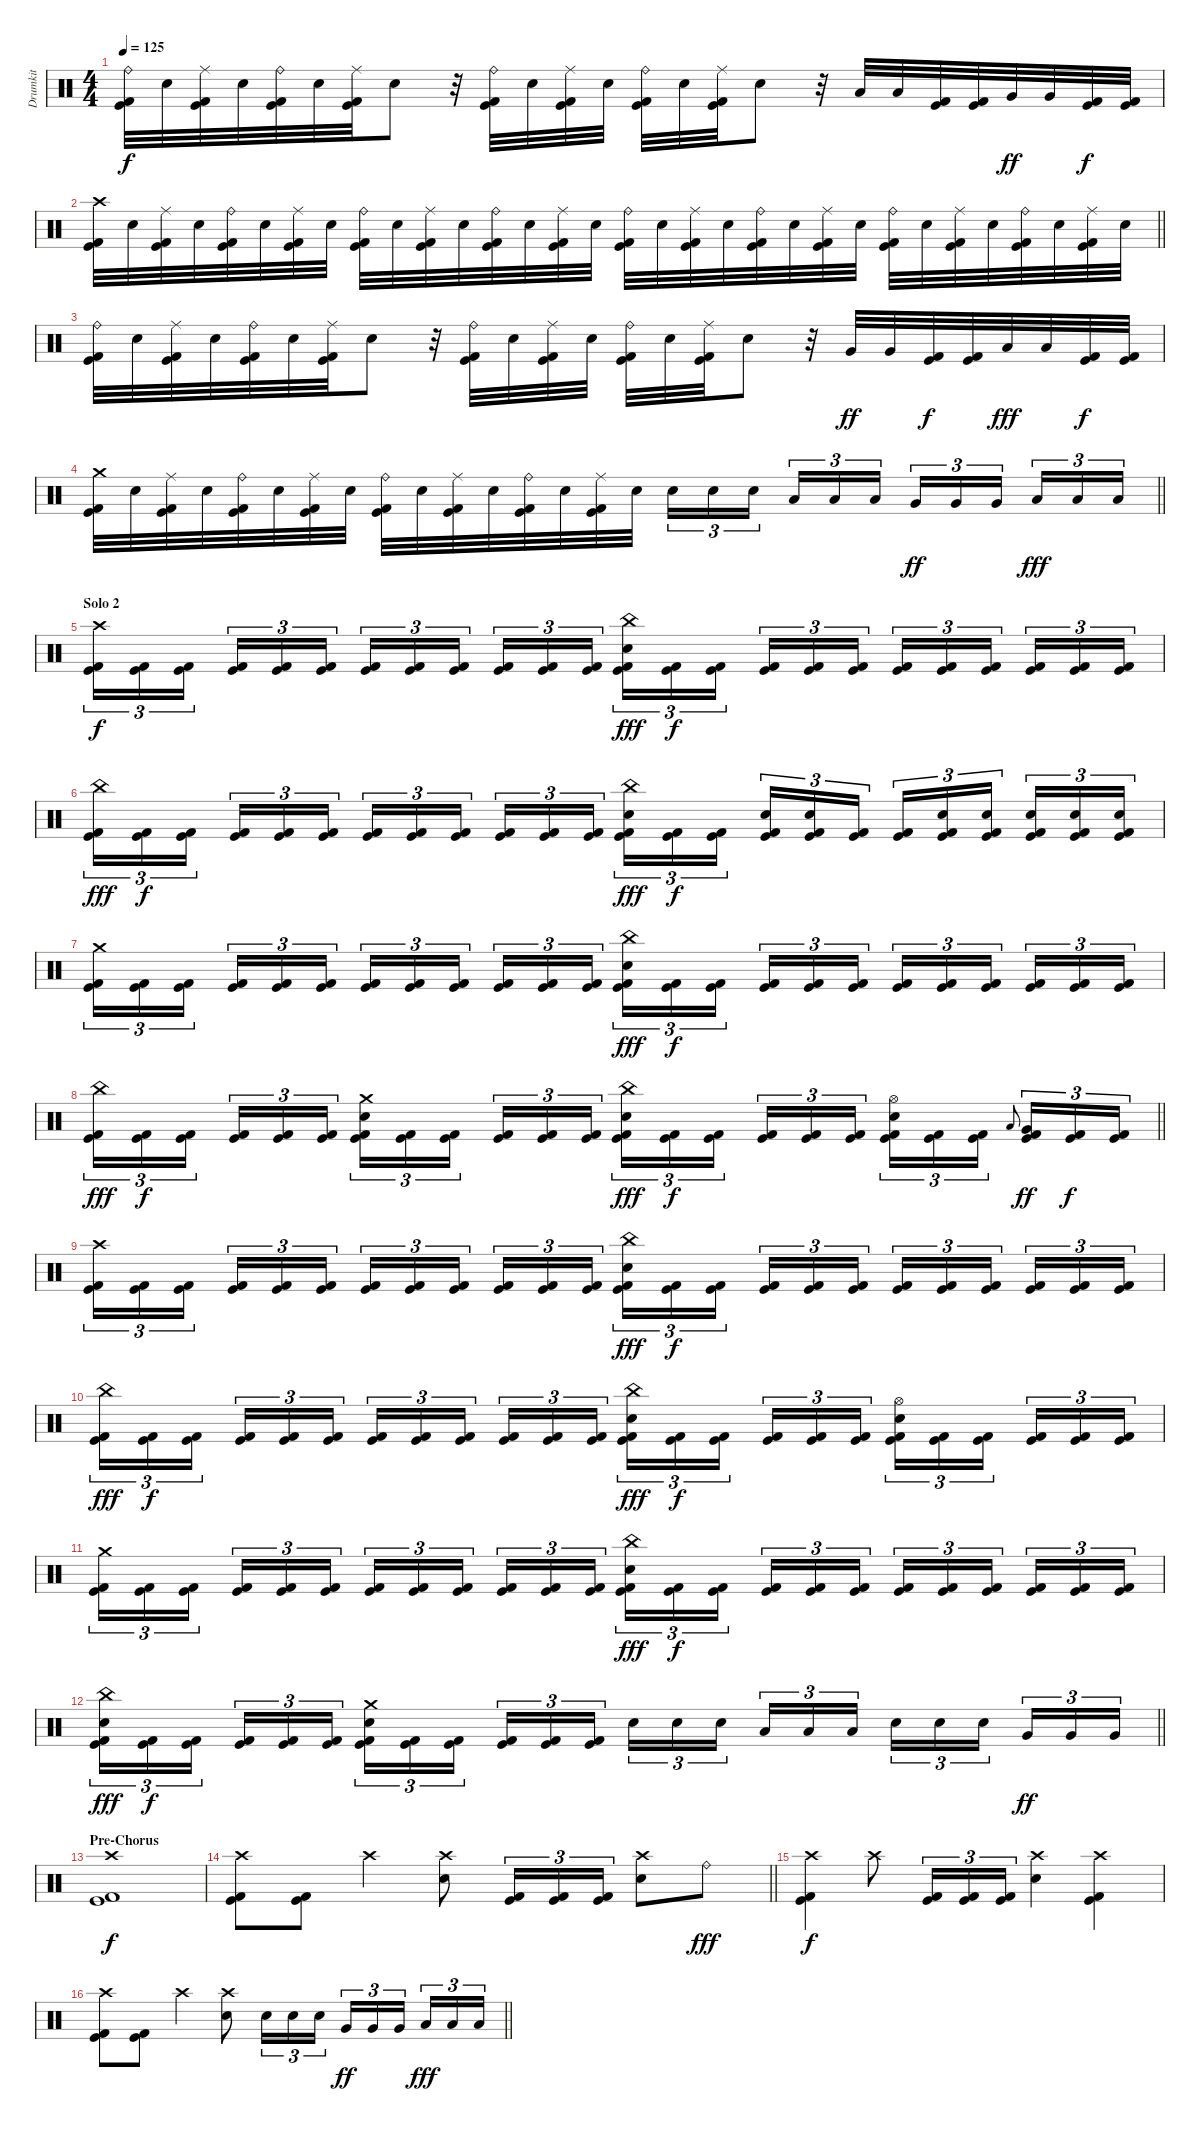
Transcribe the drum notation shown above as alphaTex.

\track ("Drumkit" "Drumkit") {instrument percussion}
\staff {score}
\articulation defaults
\ts (4 4)
\tempo 125
\clef neutral
\ks c
("Ride (bell)" "Kick (hit)" "Kick (hit) 2").32{dy f} "Electric Snare (hit)".32 ("Ride (middle)" "Kick (hit)" "Kick (hit) 2").32 "Electric Snare (hit)".32 ("Ride (bell)" "Kick (hit)" "Kick (hit) 2").32 "Electric Snare (hit)".32 ("Ride (middle)" "Kick (hit)" "Kick (hit) 2").32 "Electric Snare (hit)".8 r.32 ("Ride (bell)" "Kick (hit)" "Kick (hit) 2").32 "Electric Snare (hit)".32 ("Ride (middle)" "Kick (hit)" "Kick (hit) 2").32 "Electric Snare (hit)".32 ("Ride (bell)" "Kick (hit)" "Kick (hit) 2").32 "Electric Snare (hit)".32 ("Ride (middle)" "Kick (hit)" "Kick (hit) 2").32 "Electric Snare (hit)".8 r.32 "Low Tom (hit)".32 "Low Tom (hit)".32 ("Kick (hit)" "Kick (hit) 2").32 ("Kick (hit)" "Kick (hit) 2").32 "Very Low Tom (hit)".32{dy ff} "Very Low Tom (hit)".32 ("Kick (hit)" "Kick (hit) 2").32{dy f} ("Kick (hit)" "Kick (hit) 2").32 |
\barLineRight lightlight
("Crash high (hit)" "Kick (hit)" "Kick (hit) 2").32 "Electric Snare (hit)".32 ("Ride (middle)" "Kick (hit)" "Kick (hit) 2").32 "Electric Snare (hit)".32 ("Ride (bell)" "Kick (hit)" "Kick (hit) 2").32 "Electric Snare (hit)".32 ("Ride (middle)" "Kick (hit)" "Kick (hit) 2").32 "Electric Snare (hit)".32 ("Ride (bell)" "Kick (hit)" "Kick (hit) 2").32 "Electric Snare (hit)".32 ("Ride (middle)" "Kick (hit)" "Kick (hit) 2").32 "Electric Snare (hit)".32 ("Ride (bell)" "Kick (hit)" "Kick (hit) 2").32 "Electric Snare (hit)".32 ("Ride (middle)" "Kick (hit)" "Kick (hit) 2").32 "Electric Snare (hit)".32 ("Ride (bell)" "Kick (hit)" "Kick (hit) 2").32 "Electric Snare (hit)".32 ("Ride (middle)" "Kick (hit)" "Kick (hit) 2").32 "Electric Snare (hit)".32 ("Ride (bell)" "Kick (hit)" "Kick (hit) 2").32 "Electric Snare (hit)".32 ("Ride (middle)" "Kick (hit)" "Kick (hit) 2").32 "Electric Snare (hit)".32 ("Ride (bell)" "Kick (hit)" "Kick (hit) 2").32 "Electric Snare (hit)".32 ("Ride (middle)" "Kick (hit)" "Kick (hit) 2").32 "Electric Snare (hit)".32 ("Ride (bell)" "Kick (hit)" "Kick (hit) 2").32 "Electric Snare (hit)".32 ("Ride (middle)" "Kick (hit)" "Kick (hit) 2").32 "Electric Snare (hit)".32 |
("Ride (bell)" "Kick (hit)" "Kick (hit) 2").32 "Electric Snare (hit)".32 ("Ride (middle)" "Kick (hit)" "Kick (hit) 2").32 "Electric Snare (hit)".32 ("Ride (bell)" "Kick (hit)" "Kick (hit) 2").32 "Electric Snare (hit)".32 ("Ride (middle)" "Kick (hit)" "Kick (hit) 2").32 "Electric Snare (hit)".8 r.32 ("Ride (bell)" "Kick (hit)" "Kick (hit) 2").32 "Electric Snare (hit)".32 ("Ride (middle)" "Kick (hit)" "Kick (hit) 2").32 "Electric Snare (hit)".32 ("Ride (bell)" "Kick (hit)" "Kick (hit) 2").32 "Electric Snare (hit)".32 ("Ride (middle)" "Kick (hit)" "Kick (hit) 2").32 "Electric Snare (hit)".8 r.32 "Very Low Tom (hit)".32{dy ff} "Very Low Tom (hit)".32 ("Kick (hit)" "Kick (hit) 2").32{dy f} ("Kick (hit)" "Kick (hit) 2").32 "Low Floor Tom (hit)".32{dy fff} "Low Floor Tom (hit)".32 ("Kick (hit)" "Kick (hit) 2").32{dy f} ("Kick (hit)" "Kick (hit) 2").32 |
\barLineRight lightlight
("Crash medium (hit)" "Kick (hit)" "Kick (hit) 2").32 "Electric Snare (hit)".32 ("Ride (middle)" "Kick (hit)" "Kick (hit) 2").32 "Electric Snare (hit)".32 ("Ride (bell)" "Kick (hit)" "Kick (hit) 2").32 "Electric Snare (hit)".32 ("Ride (middle)" "Kick (hit)" "Kick (hit) 2").32 "Electric Snare (hit)".32 ("Ride (bell)" "Kick (hit)" "Kick (hit) 2").32 "Electric Snare (hit)".32 ("Ride (middle)" "Kick (hit)" "Kick (hit) 2").32 "Electric Snare (hit)".32 ("Ride (bell)" "Kick (hit)" "Kick (hit) 2").32 "Electric Snare (hit)".32 ("Ride (middle)" "Kick (hit)" "Kick (hit) 2").32 "Electric Snare (hit)".32 "Electric Snare (hit)".16{tu (3 2)} "Electric Snare (hit)".16{tu (3 2)} "Electric Snare (hit)".16{tu (3 2) beam splitsecondary} "Low Tom (hit)".16{tu (3 2)} "Low Tom (hit)".16{tu (3 2)} "Low Tom (hit)".16{tu (3 2)} "Very Low Tom (hit)".16{tu (3 2) dy ff} "Very Low Tom (hit)".16{tu (3 2)} "Very Low Tom (hit)".16{tu (3 2) beam splitsecondary} "Low Floor Tom (hit)".16{tu (3 2) dy fff} "Low Floor Tom (hit)".16{tu (3 2)} "Low Floor Tom (hit)".16{tu (3 2)} |
\section ("" "Solo 2")
("Crash high (hit)" "Kick (hit)" "Kick (hit) 2").16{tu (3 2) dy f} ("Kick (hit)" "Kick (hit) 2").16{tu (3 2)} ("Kick (hit)" "Kick (hit) 2").16{tu (3 2) beam splitsecondary} ("Kick (hit)" "Kick (hit) 2").16{tu (3 2)} ("Kick (hit)" "Kick (hit) 2").16{tu (3 2)} ("Kick (hit)" "Kick (hit) 2").16{tu (3 2)} ("Kick (hit)" "Kick (hit) 2").16{tu (3 2)} ("Kick (hit)" "Kick (hit) 2").16{tu (3 2)} ("Kick (hit)" "Kick (hit) 2").16{tu (3 2) beam splitsecondary} ("Kick (hit)" "Kick (hit) 2").16{tu (3 2)} ("Kick (hit)" "Kick (hit) 2").16{tu (3 2)} ("Kick (hit)" "Kick (hit) 2").16{tu (3 2)} ("China (hit)" "Electric Snare (hit)" "Kick (hit)" "Kick (hit) 2").16{tu (3 2) dy fff} ("Kick (hit)" "Kick (hit) 2").16{tu (3 2) dy f} ("Kick (hit)" "Kick (hit) 2").16{tu (3 2) beam splitsecondary} ("Kick (hit)" "Kick (hit) 2").16{tu (3 2)} ("Kick (hit)" "Kick (hit) 2").16{tu (3 2)} ("Kick (hit)" "Kick (hit) 2").16{tu (3 2)} ("Kick (hit)" "Kick (hit) 2").16{tu (3 2)} ("Kick (hit)" "Kick (hit) 2").16{tu (3 2)} ("Kick (hit)" "Kick (hit) 2").16{tu (3 2) beam splitsecondary} ("Kick (hit)" "Kick (hit) 2").16{tu (3 2)} ("Kick (hit)" "Kick (hit) 2").16{tu (3 2)} ("Kick (hit)" "Kick (hit) 2").16{tu (3 2)} |
("China (hit)" "Kick (hit)" "Kick (hit) 2").16{tu (3 2) dy fff} ("Kick (hit)" "Kick (hit) 2").16{tu (3 2) dy f} ("Kick (hit)" "Kick (hit) 2").16{tu (3 2) beam splitsecondary} ("Kick (hit)" "Kick (hit) 2").16{tu (3 2)} ("Kick (hit)" "Kick (hit) 2").16{tu (3 2)} ("Kick (hit)" "Kick (hit) 2").16{tu (3 2)} ("Kick (hit)" "Kick (hit) 2").16{tu (3 2)} ("Kick (hit)" "Kick (hit) 2").16{tu (3 2)} ("Kick (hit)" "Kick (hit) 2").16{tu (3 2) beam splitsecondary} ("Kick (hit)" "Kick (hit) 2").16{tu (3 2)} ("Kick (hit)" "Kick (hit) 2").16{tu (3 2)} ("Kick (hit)" "Kick (hit) 2").16{tu (3 2)} ("China (hit)" "Electric Snare (hit)" "Kick (hit)" "Kick (hit) 2").16{tu (3 2) dy fff} ("Kick (hit)" "Kick (hit) 2").16{tu (3 2) dy f} ("Kick (hit)" "Kick (hit) 2").16{tu (3 2) beam splitsecondary} ("Electric Snare (hit)" "Kick (hit)" "Kick (hit) 2").16{tu (3 2)} ("Electric Snare (hit)" "Kick (hit)" "Kick (hit) 2").16{tu (3 2)} ("Kick (hit)" "Kick (hit) 2").16{tu (3 2)} ("Kick (hit)" "Kick (hit) 2").16{tu (3 2)} ("Electric Snare (hit)" "Kick (hit)" "Kick (hit) 2").16{tu (3 2)} ("Electric Snare (hit)" "Kick (hit)" "Kick (hit) 2").16{tu (3 2) beam splitsecondary} ("Electric Snare (hit)" "Kick (hit)" "Kick (hit) 2").16{tu (3 2)} ("Electric Snare (hit)" "Kick (hit)" "Kick (hit) 2").16{tu (3 2)} ("Electric Snare (hit)" "Kick (hit)" "Kick (hit) 2").16{tu (3 2)} |
("Crash medium (hit)" "Kick (hit)" "Kick (hit) 2").16{tu (3 2)} ("Kick (hit)" "Kick (hit) 2").16{tu (3 2)} ("Kick (hit)" "Kick (hit) 2").16{tu (3 2) beam splitsecondary} ("Kick (hit)" "Kick (hit) 2").16{tu (3 2)} ("Kick (hit)" "Kick (hit) 2").16{tu (3 2)} ("Kick (hit)" "Kick (hit) 2").16{tu (3 2)} ("Kick (hit)" "Kick (hit) 2").16{tu (3 2)} ("Kick (hit)" "Kick (hit) 2").16{tu (3 2)} ("Kick (hit)" "Kick (hit) 2").16{tu (3 2) beam splitsecondary} ("Kick (hit)" "Kick (hit) 2").16{tu (3 2)} ("Kick (hit)" "Kick (hit) 2").16{tu (3 2)} ("Kick (hit)" "Kick (hit) 2").16{tu (3 2)} ("China (hit)" "Electric Snare (hit)" "Kick (hit)" "Kick (hit) 2").16{tu (3 2) dy fff} ("Kick (hit)" "Kick (hit) 2").16{tu (3 2) dy f} ("Kick (hit)" "Kick (hit) 2").16{tu (3 2) beam splitsecondary} ("Kick (hit)" "Kick (hit) 2").16{tu (3 2)} ("Kick (hit)" "Kick (hit) 2").16{tu (3 2)} ("Kick (hit)" "Kick (hit) 2").16{tu (3 2)} ("Kick (hit)" "Kick (hit) 2").16{tu (3 2)} ("Kick (hit)" "Kick (hit) 2").16{tu (3 2)} ("Kick (hit)" "Kick (hit) 2").16{tu (3 2) beam splitsecondary} ("Kick (hit)" "Kick (hit) 2").16{tu (3 2)} ("Kick (hit)" "Kick (hit) 2").16{tu (3 2)} ("Kick (hit)" "Kick (hit) 2").16{tu (3 2)} |
\barLineRight lightlight
("China (hit)" "Kick (hit)" "Kick (hit) 2").16{tu (3 2) dy fff} ("Kick (hit)" "Kick (hit) 2").16{tu (3 2) dy f} ("Kick (hit)" "Kick (hit) 2").16{tu (3 2) beam splitsecondary} ("Kick (hit)" "Kick (hit) 2").16{tu (3 2)} ("Kick (hit)" "Kick (hit) 2").16{tu (3 2)} ("Kick (hit)" "Kick (hit) 2").16{tu (3 2)} ("Crash medium (hit)" "Electric Snare (hit)" "Kick (hit)" "Kick (hit) 2").16{tu (3 2)} ("Kick (hit)" "Kick (hit) 2").16{tu (3 2)} ("Kick (hit)" "Kick (hit) 2").16{tu (3 2) beam splitsecondary} ("Kick (hit)" "Kick (hit) 2").16{tu (3 2)} ("Kick (hit)" "Kick (hit) 2").16{tu (3 2)} ("Kick (hit)" "Kick (hit) 2").16{tu (3 2)} ("China (hit)" "Electric Snare (hit)" "Kick (hit)" "Kick (hit) 2").16{tu (3 2) dy fff} ("Kick (hit)" "Kick (hit) 2").16{tu (3 2) dy f} ("Kick (hit)" "Kick (hit) 2").16{tu (3 2) beam splitsecondary} ("Kick (hit)" "Kick (hit) 2").16{tu (3 2)} ("Kick (hit)" "Kick (hit) 2").16{tu (3 2)} ("Kick (hit)" "Kick (hit) 2").16{tu (3 2)} ("Hi-Hat (open)" "Electric Snare (hit)" "Kick (hit)" "Kick (hit) 2").16{tu (3 2)} ("Kick (hit)" "Kick (hit) 2").16{tu (3 2)} ("Kick (hit)" "Kick (hit) 2").16{tu (3 2)} "Low Tom (hit)".8{gr onbeat beam splitsecondary} ("Very Low Tom (hit)" "Kick (hit)" "Kick (hit) 2").16{tu (3 2) dy ff} ("Kick (hit)" "Kick (hit) 2").16{tu (3 2) dy f} ("Kick (hit)" "Kick (hit) 2").16{tu (3 2)} |
("Crash high (hit)" "Kick (hit)" "Kick (hit) 2").16{tu (3 2)} ("Kick (hit)" "Kick (hit) 2").16{tu (3 2)} ("Kick (hit)" "Kick (hit) 2").16{tu (3 2) beam splitsecondary} ("Kick (hit)" "Kick (hit) 2").16{tu (3 2)} ("Kick (hit)" "Kick (hit) 2").16{tu (3 2)} ("Kick (hit)" "Kick (hit) 2").16{tu (3 2)} ("Kick (hit)" "Kick (hit) 2").16{tu (3 2)} ("Kick (hit)" "Kick (hit) 2").16{tu (3 2)} ("Kick (hit)" "Kick (hit) 2").16{tu (3 2) beam splitsecondary} ("Kick (hit)" "Kick (hit) 2").16{tu (3 2)} ("Kick (hit)" "Kick (hit) 2").16{tu (3 2)} ("Kick (hit)" "Kick (hit) 2").16{tu (3 2)} ("China (hit)" "Electric Snare (hit)" "Kick (hit)" "Kick (hit) 2").16{tu (3 2) dy fff} ("Kick (hit)" "Kick (hit) 2").16{tu (3 2) dy f} ("Kick (hit)" "Kick (hit) 2").16{tu (3 2) beam splitsecondary} ("Kick (hit)" "Kick (hit) 2").16{tu (3 2)} ("Kick (hit)" "Kick (hit) 2").16{tu (3 2)} ("Kick (hit)" "Kick (hit) 2").16{tu (3 2)} ("Kick (hit)" "Kick (hit) 2").16{tu (3 2)} ("Kick (hit)" "Kick (hit) 2").16{tu (3 2)} ("Kick (hit)" "Kick (hit) 2").16{tu (3 2) beam splitsecondary} ("Kick (hit)" "Kick (hit) 2").16{tu (3 2)} ("Kick (hit)" "Kick (hit) 2").16{tu (3 2)} ("Kick (hit)" "Kick (hit) 2").16{tu (3 2)} |
("China (hit)" "Kick (hit)" "Kick (hit) 2").16{tu (3 2) dy fff} ("Kick (hit)" "Kick (hit) 2").16{tu (3 2) dy f} ("Kick (hit)" "Kick (hit) 2").16{tu (3 2) beam splitsecondary} ("Kick (hit)" "Kick (hit) 2").16{tu (3 2)} ("Kick (hit)" "Kick (hit) 2").16{tu (3 2)} ("Kick (hit)" "Kick (hit) 2").16{tu (3 2)} ("Kick (hit)" "Kick (hit) 2").16{tu (3 2)} ("Kick (hit)" "Kick (hit) 2").16{tu (3 2)} ("Kick (hit)" "Kick (hit) 2").16{tu (3 2) beam splitsecondary} ("Kick (hit)" "Kick (hit) 2").16{tu (3 2)} ("Kick (hit)" "Kick (hit) 2").16{tu (3 2)} ("Kick (hit)" "Kick (hit) 2").16{tu (3 2)} ("China (hit)" "Electric Snare (hit)" "Kick (hit)" "Kick (hit) 2").16{tu (3 2) dy fff} ("Kick (hit)" "Kick (hit) 2").16{tu (3 2) dy f} ("Kick (hit)" "Kick (hit) 2").16{tu (3 2) beam splitsecondary} ("Kick (hit)" "Kick (hit) 2").16{tu (3 2)} ("Kick (hit)" "Kick (hit) 2").16{tu (3 2)} ("Kick (hit)" "Kick (hit) 2").16{tu (3 2)} ("Hi-Hat (open)" "Electric Snare (hit)" "Kick (hit)" "Kick (hit) 2").16{tu (3 2)} ("Kick (hit)" "Kick (hit) 2").16{tu (3 2)} ("Kick (hit)" "Kick (hit) 2").16{tu (3 2) beam splitsecondary} ("Kick (hit)" "Kick (hit) 2").16{tu (3 2)} ("Kick (hit)" "Kick (hit) 2").16{tu (3 2)} ("Kick (hit)" "Kick (hit) 2").16{tu (3 2)} |
("Crash medium (hit)" "Kick (hit)" "Kick (hit) 2").16{tu (3 2)} ("Kick (hit)" "Kick (hit) 2").16{tu (3 2)} ("Kick (hit)" "Kick (hit) 2").16{tu (3 2) beam splitsecondary} ("Kick (hit)" "Kick (hit) 2").16{tu (3 2)} ("Kick (hit)" "Kick (hit) 2").16{tu (3 2)} ("Kick (hit)" "Kick (hit) 2").16{tu (3 2)} ("Kick (hit)" "Kick (hit) 2").16{tu (3 2)} ("Kick (hit)" "Kick (hit) 2").16{tu (3 2)} ("Kick (hit)" "Kick (hit) 2").16{tu (3 2) beam splitsecondary} ("Kick (hit)" "Kick (hit) 2").16{tu (3 2)} ("Kick (hit)" "Kick (hit) 2").16{tu (3 2)} ("Kick (hit)" "Kick (hit) 2").16{tu (3 2)} ("China (hit)" "Electric Snare (hit)" "Kick (hit)" "Kick (hit) 2").16{tu (3 2) dy fff} ("Kick (hit)" "Kick (hit) 2").16{tu (3 2) dy f} ("Kick (hit)" "Kick (hit) 2").16{tu (3 2) beam splitsecondary} ("Kick (hit)" "Kick (hit) 2").16{tu (3 2)} ("Kick (hit)" "Kick (hit) 2").16{tu (3 2)} ("Kick (hit)" "Kick (hit) 2").16{tu (3 2)} ("Kick (hit)" "Kick (hit) 2").16{tu (3 2)} ("Kick (hit)" "Kick (hit) 2").16{tu (3 2)} ("Kick (hit)" "Kick (hit) 2").16{tu (3 2) beam splitsecondary} ("Kick (hit)" "Kick (hit) 2").16{tu (3 2)} ("Kick (hit)" "Kick (hit) 2").16{tu (3 2)} ("Kick (hit)" "Kick (hit) 2").16{tu (3 2)} |
\barLineRight lightlight
("China (hit)" "Electric Snare (hit)" "Kick (hit)" "Kick (hit) 2").16{tu (3 2) dy fff} ("Kick (hit)" "Kick (hit) 2").16{tu (3 2) dy f} ("Kick (hit)" "Kick (hit) 2").16{tu (3 2) beam splitsecondary} ("Kick (hit)" "Kick (hit) 2").16{tu (3 2)} ("Kick (hit)" "Kick (hit) 2").16{tu (3 2)} ("Kick (hit)" "Kick (hit) 2").16{tu (3 2)} ("Crash medium (hit)" "Electric Snare (hit)" "Kick (hit)" "Kick (hit) 2").16{tu (3 2)} ("Kick (hit)" "Kick (hit) 2").16{tu (3 2)} ("Kick (hit)" "Kick (hit) 2").16{tu (3 2) beam splitsecondary} ("Kick (hit)" "Kick (hit) 2").16{tu (3 2)} ("Kick (hit)" "Kick (hit) 2").16{tu (3 2)} ("Kick (hit)" "Kick (hit) 2").16{tu (3 2)} "Electric Snare (hit)".16{tu (3 2)} "Electric Snare (hit)".16{tu (3 2)} "Electric Snare (hit)".16{tu (3 2) beam splitsecondary} "Low Tom (hit)".16{tu (3 2)} "Low Tom (hit)".16{tu (3 2)} "Low Tom (hit)".16{tu (3 2)} "Electric Snare (hit)".16{tu (3 2)} "Electric Snare (hit)".16{tu (3 2)} "Electric Snare (hit)".16{tu (3 2) beam splitsecondary} "Very Low Tom (hit)".16{tu (3 2) dy ff} "Very Low Tom (hit)".16{tu (3 2)} "Very Low Tom (hit)".16{tu (3 2)} |
\section ("" "Pre-Chorus")
("Crash high (hit)" "Kick (hit)" "Kick (hit) 2").1{dy f} |
\barLineRight lightlight
("Crash high (hit)" "Kick (hit)" "Kick (hit) 2").8 ("Kick (hit)" "Kick (hit) 2").8 "Crash high (hit)".4 ("Crash high (hit)" "Electric Snare (hit)").8 ("Kick (hit)" "Kick (hit) 2").16{tu (3 2)} ("Kick (hit)" "Kick (hit) 2").16{tu (3 2)} ("Kick (hit)" "Kick (hit) 2").16{tu (3 2)} ("Crash high (hit)" "Electric Snare (hit)").8 "Ride (bell)".8{dy fff} |
("Crash high (hit)" "Kick (hit)" "Kick (hit) 2").4{dy f} "Crash high (hit)".8 ("Kick (hit)" "Kick (hit) 2").16{tu (3 2)} ("Kick (hit)" "Kick (hit) 2").16{tu (3 2)} ("Kick (hit)" "Kick (hit) 2").16{tu (3 2)} ("Crash high (hit)" "Electric Snare (hit)").4 ("Crash high (hit)" "Kick (hit)" "Kick (hit) 2").4 |
\barLineRight lightlight
("Crash high (hit)" "Kick (hit)" "Kick (hit) 2").8 ("Kick (hit)" "Kick (hit) 2").8 "Crash high (hit)".4 ("Crash high (hit)" "Electric Snare (hit)").8 "Electric Snare (hit)".16{tu (3 2)} "Electric Snare (hit)".16{tu (3 2)} "Electric Snare (hit)".16{tu (3 2)} "Very Low Tom (hit)".16{tu (3 2) dy ff} "Very Low Tom (hit)".16{tu (3 2)} "Very Low Tom (hit)".16{tu (3 2) beam splitsecondary} "Low Floor Tom (hit)".16{tu (3 2) dy fff} "Low Floor Tom (hit)".16{tu (3 2)} "Low Floor Tom (hit)".16{tu (3 2)}
